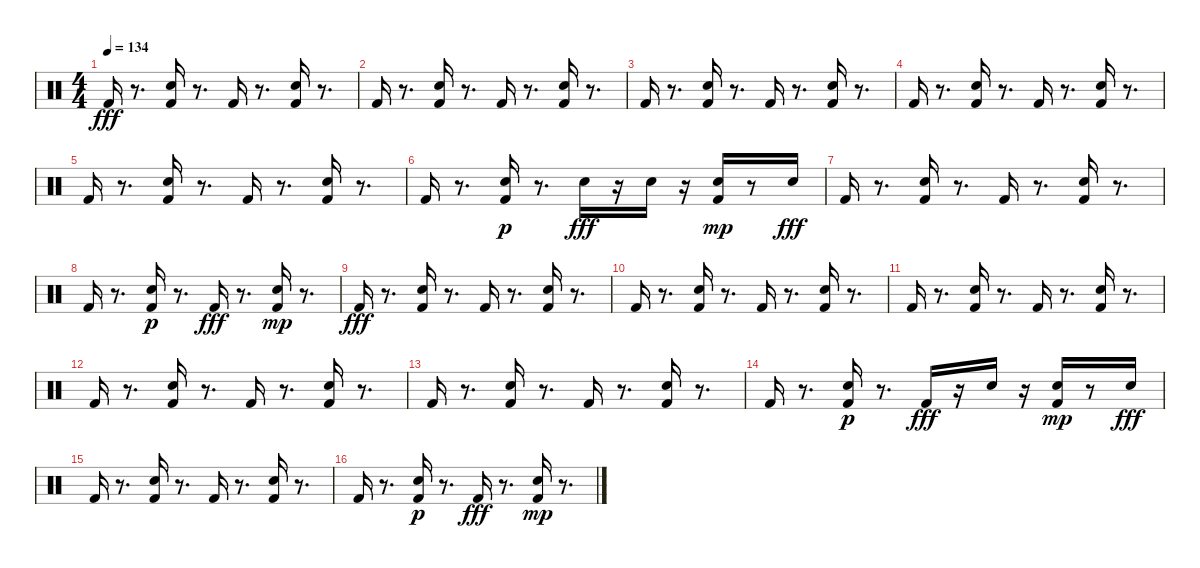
\track "" {instrument percussion}
\staff {score}
\articulation defaults
\ts (4 4)
\tempo 134
\clef neutral
\ks c "Kick (hit) 2".16{dy fff}
r.8{d} ("Kick (hit) 2" "Snare (hit) 2").16 r.8{d} "Kick (hit) 2".16 r.8{d} ("Kick (hit) 2" "Snare (hit) 2").16 r.8{d} |
"Kick (hit) 2".16 r.8{d} ("Kick (hit) 2" "Snare (hit) 2").16 r.8{d} "Kick (hit) 2".16 r.8{d} ("Kick (hit) 2" "Snare (hit) 2").16 r.8{d} |
"Kick (hit) 2".16 r.8{d} ("Kick (hit) 2" "Snare (hit) 2").16 r.8{d} "Kick (hit) 2".16 r.8{d} ("Kick (hit) 2" "Snare (hit) 2").16 r.8{d} |
"Kick (hit) 2".16 r.8{d} ("Kick (hit) 2" "Snare (hit) 2").16 r.8{d} "Kick (hit) 2".16 r.8{d} ("Kick (hit) 2" "Snare (hit) 2").16 r.8{d} |
"Kick (hit) 2".16 r.8{d} ("Kick (hit) 2" "Snare (hit) 2").16 r.8{d} "Kick (hit) 2".16 r.8{d} ("Kick (hit) 2" "Snare (hit) 2").16 r.8{d} |
"Kick (hit) 2".16 r.8{d} ("Snare (hit) 2" "Kick (hit) 2").16{dy p} r.8{d} "Snare (hit) 2".16{dy fff} r.16 "Snare (hit) 2".16 r.16 ("Snare (hit) 2" "Kick (hit) 2").16{dy mp} r.8 "Snare (hit) 2".16{dy fff} |
"Kick (hit) 2".16 r.8{d} ("Kick (hit) 2" "Snare (hit) 2").16 r.8{d} "Kick (hit) 2".16 r.8{d} ("Kick (hit) 2" "Snare (hit) 2").16 r.8{d} |
"Kick (hit) 2".16 r.8{d} ("Snare (hit) 2" "Kick (hit) 2").16{dy p} r.8{d} "Kick (hit) 2".16{dy fff} r.8{d} ("Snare (hit) 2" "Kick (hit) 2").16{dy mp} r.8{d} |
"Kick (hit) 2".16{dy fff} r.8{d} ("Kick (hit) 2" "Snare (hit) 2").16 r.8{d} "Kick (hit) 2".16 r.8{d} ("Kick (hit) 2" "Snare (hit) 2").16 r.8{d} |
"Kick (hit) 2".16 r.8{d} ("Kick (hit) 2" "Snare (hit) 2").16 r.8{d} "Kick (hit) 2".16 r.8{d} ("Kick (hit) 2" "Snare (hit) 2").16 r.8{d} |
"Kick (hit) 2".16 r.8{d} ("Kick (hit) 2" "Snare (hit) 2").16 r.8{d} "Kick (hit) 2".16 r.8{d} ("Kick (hit) 2" "Snare (hit) 2").16 r.8{d} |
"Kick (hit) 2".16 r.8{d} ("Kick (hit) 2" "Snare (hit) 2").16 r.8{d} "Kick (hit) 2".16 r.8{d} ("Kick (hit) 2" "Snare (hit) 2").16 r.8{d} |
"Kick (hit) 2".16 r.8{d} ("Kick (hit) 2" "Snare (hit) 2").16 r.8{d} "Kick (hit) 2".16 r.8{d} ("Kick (hit) 2" "Snare (hit) 2").16 r.8{d} |
"Kick (hit) 2".16 r.8{d} ("Snare (hit) 2" "Kick (hit) 2").16{dy p} r.8{d} "Kick (hit) 2".16{dy fff} r.16 "Snare (hit) 2".16 r.16 ("Snare (hit) 2" "Kick (hit) 2").16{dy mp} r.8 "Snare (hit) 2".16{dy fff} |
"Kick (hit) 2".16 r.8{d} ("Kick (hit) 2" "Snare (hit) 2").16 r.8{d} "Kick (hit) 2".16 r.8{d} ("Kick (hit) 2" "Snare (hit) 2").16 r.8{d} |
"Kick (hit) 2".16 r.8{d} ("Snare (hit) 2" "Kick (hit) 2").16{dy p} r.8{d} "Kick (hit) 2".16{dy fff} r.8{d} ("Snare (hit) 2" "Kick (hit) 2").16{dy mp} r.8{d}
